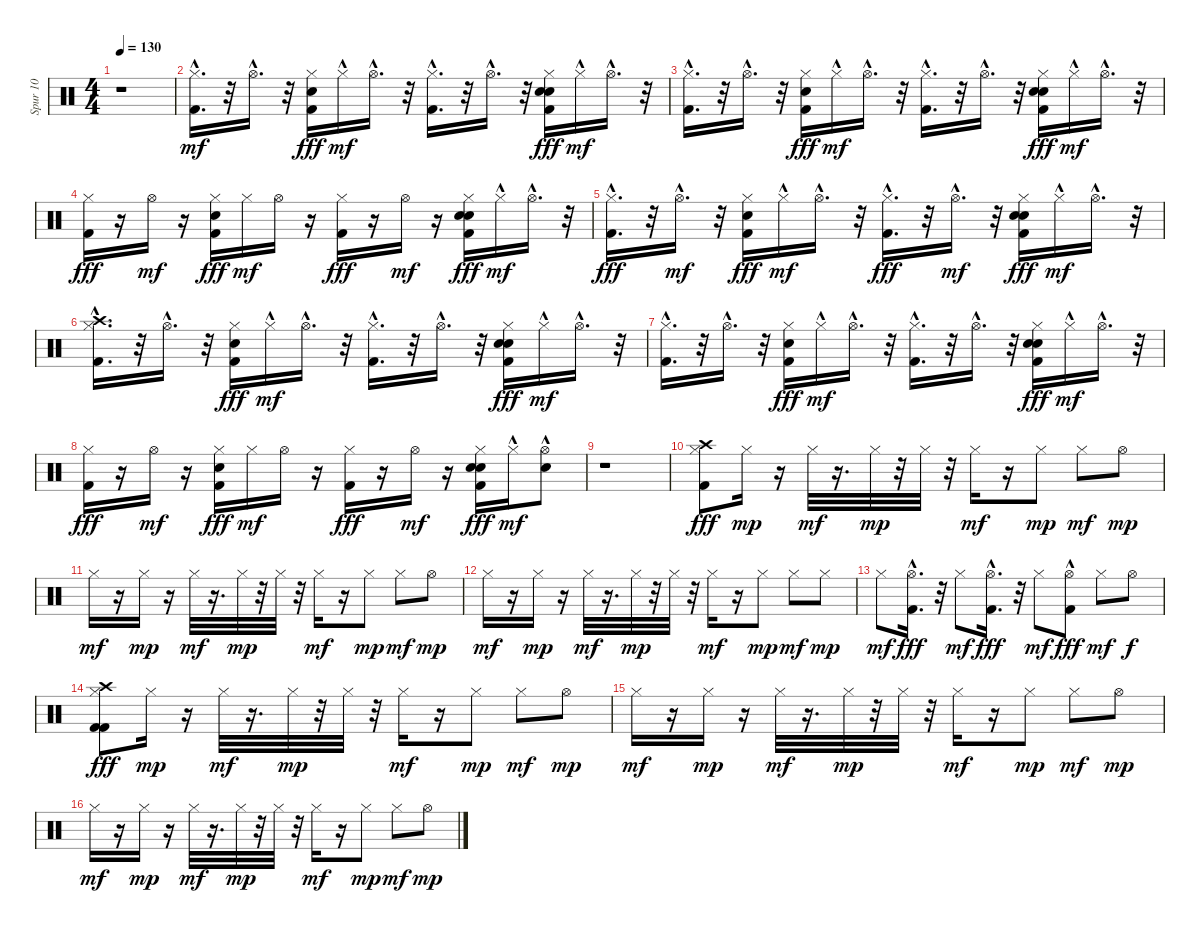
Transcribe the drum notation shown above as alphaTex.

\track ("Spur 10" "Spur 10") {instrument percussion}
\staff {score}
\articulation defaults
\ts (4 4)
\tempo 130
\clef neutral
\ks c
r.1{dy mf} |
("Kick (hit) 2" "Hi-Hat (closed)"{hac}).16{d} r.32 "Hi-Hat (open)"{hac}.16{d} r.32 ("Kick (hit) 2" "Hi-Hat (closed)" "Snare (hit) 2").16{dy fff} "Hi-Hat (closed)"{hac}.16{dy mf} "Hi-Hat (open)"{hac}.16{d} r.32 ("Kick (hit) 2" "Hi-Hat (closed)"{hac}).16{d} r.32 "Hi-Hat (open)"{hac}.16{d} r.32 ("Kick (hit) 2" "Hi-Hat (closed)" "Hand Clap (hit)" "Snare (hit) 2").16{dy fff} "Hi-Hat (closed)"{hac}.16{dy mf} "Hi-Hat (open)"{hac}.16{d} r.32 |
("Kick (hit) 2" "Hi-Hat (closed)"{hac}).16{d} r.32 "Hi-Hat (open)"{hac}.16{d} r.32 ("Hi-Hat (closed)" "Snare (hit) 2" "Kick (hit) 2").16{dy fff} "Hi-Hat (closed)"{hac}.16{dy mf} "Hi-Hat (open)"{hac}.16{d} r.32 ("Kick (hit) 2" "Hi-Hat (closed)"{hac}).16{d} r.32 "Hi-Hat (open)"{hac}.16{d} r.32 ("Hi-Hat (closed)" "Kick (hit) 2" "Snare (hit) 2" "Hand Clap (hit)").16{dy fff} "Hi-Hat (closed)"{hac}.16{dy mf} "Hi-Hat (open)"{hac}.16{d} r.32 |
("Hi-Hat (closed)" "Kick (hit) 2").16{dy fff} r.16 "Hi-Hat (open)".16{dy mf} r.16 ("Snare (hit) 2" "Hi-Hat (closed)" "Kick (hit) 2").16{dy fff} "Hi-Hat (closed)".16{dy mf} "Hi-Hat (open)".16 r.16 ("Hi-Hat (closed)" "Kick (hit) 2").16{dy fff} r.16 "Hi-Hat (open)".16{dy mf} r.16 ("Snare (hit) 2" "Hand Clap (hit)" "Hi-Hat (closed)" "Kick (hit) 2").16{dy fff} "Hi-Hat (closed)"{hac}.16{dy mf} "Hi-Hat (open)"{hac}.16{d} r.32 |
("Hi-Hat (closed)"{hac} "Kick (hit) 2").16{d dy fff} r.32 "Hi-Hat (open)"{hac}.16{d dy mf} r.32 ("Hi-Hat (closed)" "Snare (hit) 2" "Kick (hit) 2").16{dy fff} "Hi-Hat (closed)"{hac}.16{dy mf} "Hi-Hat (open)"{hac}.16{d} r.32 ("Hi-Hat (closed)"{hac} "Kick (hit) 2").16{d dy fff} r.32 "Hi-Hat (open)"{hac}.16{d dy mf} r.32 ("Hand Clap (hit)" "Snare (hit) 2" "Hi-Hat (closed)" "Kick (hit) 2").16{dy fff} "Hi-Hat (closed)"{hac}.16{dy mf} "Hi-Hat (open)"{hac}.16{d} r.32 |
("Crash high (hit)" "Kick (hit) 2" "Hi-Hat (closed)"{hac}).16{d} r.32 "Hi-Hat (open)"{hac}.16{d} r.32 ("Kick (hit) 2" "Hi-Hat (closed)" "Snare (hit) 2").16{dy fff} "Hi-Hat (closed)"{hac}.16{dy mf} "Hi-Hat (open)"{hac}.16{d} r.32 ("Kick (hit) 2" "Hi-Hat (closed)"{hac}).16{d} r.32 "Hi-Hat (open)"{hac}.16{d} r.32 ("Kick (hit) 2" "Hi-Hat (closed)" "Hand Clap (hit)" "Snare (hit) 2").16{dy fff} "Hi-Hat (closed)"{hac}.16{dy mf} "Hi-Hat (open)"{hac}.16{d} r.32 |
("Kick (hit) 2" "Hi-Hat (closed)"{hac}).16{d} r.32 "Hi-Hat (open)"{hac}.16{d} r.32 ("Hi-Hat (closed)" "Snare (hit) 2" "Kick (hit) 2").16{dy fff} "Hi-Hat (closed)"{hac}.16{dy mf} "Hi-Hat (open)"{hac}.16{d} r.32 ("Kick (hit) 2" "Hi-Hat (closed)"{hac}).16{d} r.32 "Hi-Hat (open)"{hac}.16{d} r.32 ("Hi-Hat (closed)" "Kick (hit) 2" "Snare (hit) 2" "Hand Clap (hit)").16{dy fff} "Hi-Hat (closed)"{hac}.16{dy mf} "Hi-Hat (open)"{hac}.16{d} r.32 |
("Hi-Hat (closed)" "Kick (hit) 2").16{dy fff} r.16 "Hi-Hat (open)".16{dy mf} r.16 ("Snare (hit) 2" "Hi-Hat (closed)" "Kick (hit) 2").16{dy fff} "Hi-Hat (closed)".16{dy mf} "Hi-Hat (open)".16 r.16 ("Hi-Hat (closed)" "Kick (hit) 2").16{dy fff} r.16 "Hi-Hat (open)".16{dy mf} r.16 ("Snare (hit) 2" "Hand Clap (hit)" "Hi-Hat (closed)" "Kick (hit) 2").16{dy fff} "Hi-Hat (closed)"{hac}.16{dy mf} ("Snare (hit) 2" "Hi-Hat (open)"{hac}).8 |
r.1 |
("Crash high (hit)" "Hi-Hat (closed)" "Kick (hit) 2").8{dy fff} "Hi-Hat (closed)".16{dy mp} r.16 "Hi-Hat (closed)".32{dy mf} r.16{d} "Hi-Hat (closed)".32{dy mp} r.32 "Hi-Hat (closed)".32 r.32 "Hi-Hat (closed)".16{dy mf} r.16 "Hi-Hat (closed)".8{dy mp} "Hi-Hat (closed)".8{dy mf} "Hi-Hat (open)".8{dy mp} |
"Hi-Hat (closed)".16{dy mf} r.16 "Hi-Hat (closed)".16{dy mp} r.16 "Hi-Hat (closed)".32{dy mf} r.16{d} "Hi-Hat (closed)".32{dy mp} r.32 "Hi-Hat (closed)".32 r.32 "Hi-Hat (closed)".16{dy mf} r.16 "Hi-Hat (closed)".8{dy mp} "Hi-Hat (closed)".8{dy mf} "Hi-Hat (open)".8{dy mp} |
"Hi-Hat (closed)".16{dy mf} r.16 "Hi-Hat (closed)".16{dy mp} r.16 "Hi-Hat (closed)".32{dy mf} r.16{d} "Hi-Hat (closed)".32{dy mp} r.32 "Hi-Hat (closed)".32 r.32 "Hi-Hat (closed)".16{dy mf} r.16 "Hi-Hat (closed)".8{dy mp} "Hi-Hat (closed)".8{dy mf} "Hi-Hat (closed)".8{dy mp} |
"Hi-Hat (closed)".8{dy mf} ("Hi-Hat (open)"{hac} "Kick (hit) 2"{hac}).16{d dy fff} r.32 "Hi-Hat (closed)".8{dy mf} ("Hi-Hat (open)"{hac} "Kick (hit) 2"{hac}).16{d dy fff} r.32 "Hi-Hat (closed)".8{dy mf} ("Kick (hit) 2" "Hi-Hat (open)"{hac}).8{dy fff} "Hi-Hat (closed)".8{dy mf} "Hi-Hat (open)".8{dy f} |
("Crash high (hit)" "Kick (hit) 2" "Hi-Hat (closed)" "Kick (hit) 2").8{dy fff} "Hi-Hat (closed)".16{dy mp} r.16 "Hi-Hat (closed)".32{dy mf} r.16{d} "Hi-Hat (closed)".32{dy mp} r.32 "Hi-Hat (closed)".32 r.32 "Hi-Hat (closed)".16{dy mf} r.16 "Hi-Hat (closed)".8{dy mp} "Hi-Hat (closed)".8{dy mf} "Hi-Hat (open)".8{dy mp} |
"Hi-Hat (closed)".16{dy mf} r.16 "Hi-Hat (closed)".16{dy mp} r.16 "Hi-Hat (closed)".32{dy mf} r.16{d} "Hi-Hat (closed)".32{dy mp} r.32 "Hi-Hat (closed)".32 r.32 "Hi-Hat (closed)".16{dy mf} r.16 "Hi-Hat (closed)".8{dy mp} "Hi-Hat (closed)".8{dy mf} "Hi-Hat (open)".8{dy mp} |
"Hi-Hat (closed)".16{dy mf} r.16 "Hi-Hat (closed)".16{dy mp} r.16 "Hi-Hat (closed)".32{dy mf} r.16{d} "Hi-Hat (closed)".32{dy mp} r.32 "Hi-Hat (closed)".32 r.32 "Hi-Hat (closed)".16{dy mf} r.16 "Hi-Hat (closed)".8{dy mp} "Hi-Hat (closed)".8{dy mf} "Hi-Hat (open)".8{dy mp}
